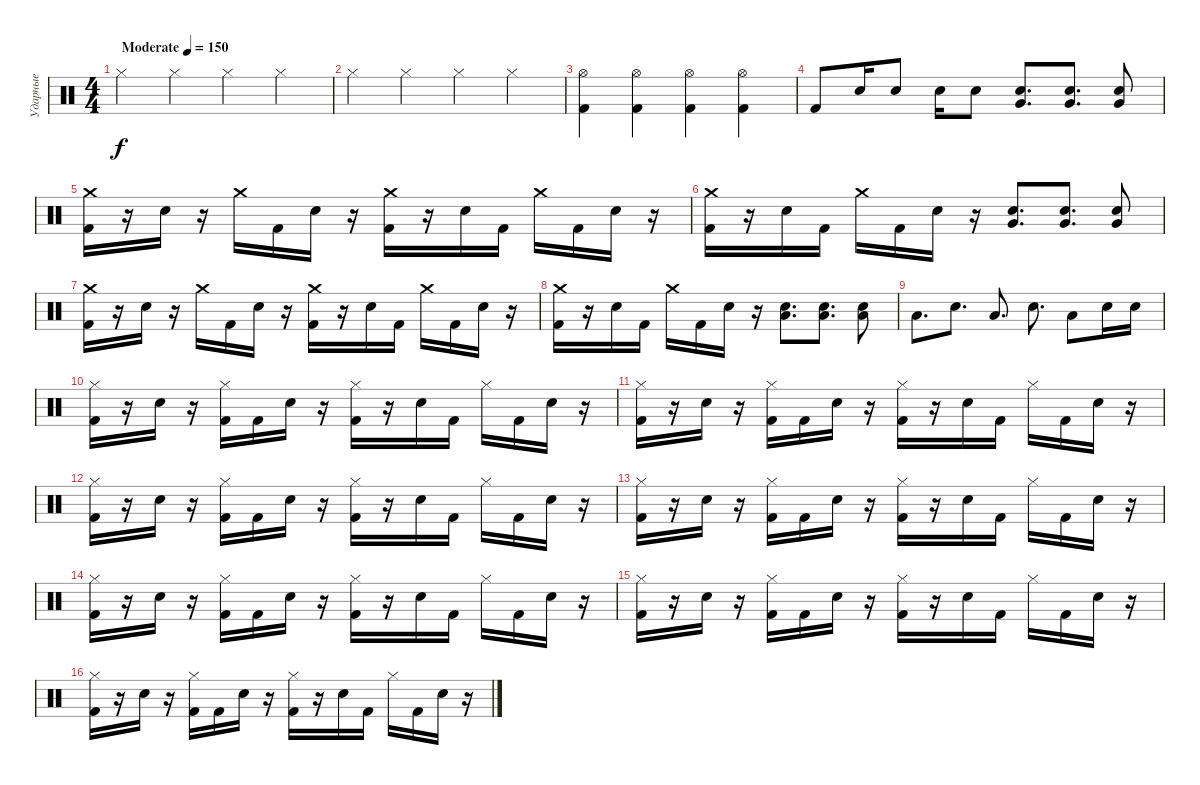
\track ("Ударные" "Ударные") {instrument percussion}
\staff {score}
\articulation defaults
\ts (4 4)
\tempo (150 "Moderate")
\clef neutral
\ks c "Hi-Hat (closed)".4{dy f} "Hi-Hat (closed)".4 "Hi-Hat (closed)".4 "Hi-Hat (closed)".4
|
"Hi-Hat (closed)".4 "Hi-Hat (closed)".4 "Hi-Hat (closed)".4 "Hi-Hat (closed)".4 |
("Hi-Hat (open)" "Kick (hit) 2").4 ("Hi-Hat (open)" "Kick (hit) 2").4 ("Hi-Hat (open)" "Kick (hit) 2").4 ("Hi-Hat (open)" "Kick (hit) 2").4 |
"Kick (hit) 2".8 "Electric Snare (hit)".16 "Electric Snare (hit)".8 "Electric Snare (hit)".16 "Electric Snare (hit)".8 ("Electric Snare (hit)" "Very Low Tom (hit)").8{d} ("Electric Snare (hit)" "Very Low Tom (hit)").8{d} ("Electric Snare (hit)" "Very Low Tom (hit)").8 |
("Crash medium (hit)" "Kick (hit) 2").16 r.16 "Electric Snare (hit)".16 r.16 "Crash medium (hit)".16 "Kick (hit) 2".16 "Electric Snare (hit)".16 r.16 ("Crash medium (hit)" "Kick (hit) 2").16 r.16 "Electric Snare (hit)".16 "Kick (hit) 2".16 "Crash medium (hit)".16 "Kick (hit) 2".16 "Electric Snare (hit)".16 r.16 |
("Crash medium (hit)" "Kick (hit) 2").16 r.16 "Electric Snare (hit)".16 "Kick (hit) 2".16 "Crash medium (hit)".16 "Kick (hit) 2".16 "Electric Snare (hit)".16 r.16 ("Electric Snare (hit)" "Very Low Tom (hit)").8{d} ("Electric Snare (hit)" "Very Low Tom (hit)").8{d} ("Electric Snare (hit)" "Very Low Tom (hit)").8 |
("Crash medium (hit)" "Kick (hit) 2").16 r.16 "Electric Snare (hit)".16 r.16 "Crash medium (hit)".16 "Kick (hit) 2".16 "Electric Snare (hit)".16 r.16 ("Crash medium (hit)" "Kick (hit) 2").16 r.16 "Electric Snare (hit)".16 "Kick (hit) 2".16 "Crash medium (hit)".16 "Kick (hit) 2".16 "Electric Snare (hit)".16 r.16 |
("Crash medium (hit)" "Kick (hit) 2").16 r.16 "Electric Snare (hit)".16 "Kick (hit) 2".16 "Crash medium (hit)".16 "Kick (hit) 2".16 "Electric Snare (hit)".16 r.16 ("Electric Snare (hit)" "Low Floor Tom (hit)").8{d} ("Electric Snare (hit)" "Low Floor Tom (hit)").8{d} ("Electric Snare (hit)" "Low Floor Tom (hit)").8 |
"Low Tom (hit)".8{d} "Electric Snare (hit)".8{d} "Low Tom (hit)".8{d} "Electric Snare (hit)".8{d} "Low Tom (hit)".8 "Electric Snare (hit)".16 "Electric Snare (hit)".16 |
("Hi-Hat (closed)" "Kick (hit) 2").16 r.16 "Electric Snare (hit)".16 r.16 ("Hi-Hat (closed)" "Kick (hit) 2").16 "Kick (hit) 2".16 "Electric Snare (hit)".16 r.16 ("Hi-Hat (closed)" "Kick (hit) 2").16 r.16 "Electric Snare (hit)".16 "Kick (hit) 2".16 "Hi-Hat (closed)".16 "Kick (hit) 2".16 "Electric Snare (hit)".16 r.16 |
("Hi-Hat (closed)" "Kick (hit) 2").16 r.16 "Electric Snare (hit)".16 r.16 ("Hi-Hat (closed)" "Kick (hit) 2").16 "Kick (hit) 2".16 "Electric Snare (hit)".16 r.16 ("Hi-Hat (closed)" "Kick (hit) 2").16 r.16 "Electric Snare (hit)".16 "Kick (hit) 2".16 "Hi-Hat (closed)".16 "Kick (hit) 2".16 "Electric Snare (hit)".16 r.16 |
("Hi-Hat (closed)" "Kick (hit) 2").16 r.16 "Electric Snare (hit)".16 r.16 ("Hi-Hat (closed)" "Kick (hit) 2").16 "Kick (hit) 2".16 "Electric Snare (hit)".16 r.16 ("Hi-Hat (closed)" "Kick (hit) 2").16 r.16 "Electric Snare (hit)".16 "Kick (hit) 2".16 "Hi-Hat (closed)".16 "Kick (hit) 2".16 "Electric Snare (hit)".16 r.16 |
("Hi-Hat (closed)" "Kick (hit) 2").16 r.16 "Electric Snare (hit)".16 r.16 ("Hi-Hat (closed)" "Kick (hit) 2").16 "Kick (hit) 2".16 "Electric Snare (hit)".16 r.16 ("Hi-Hat (closed)" "Kick (hit) 2").16 r.16 "Electric Snare (hit)".16 "Kick (hit) 2".16 "Hi-Hat (closed)".16 "Kick (hit) 2".16 "Electric Snare (hit)".16 r.16 |
("Hi-Hat (closed)" "Kick (hit) 2").16 r.16 "Electric Snare (hit)".16 r.16 ("Hi-Hat (closed)" "Kick (hit) 2").16 "Kick (hit) 2".16 "Electric Snare (hit)".16 r.16 ("Hi-Hat (closed)" "Kick (hit) 2").16 r.16 "Electric Snare (hit)".16 "Kick (hit) 2".16 "Hi-Hat (closed)".16 "Kick (hit) 2".16 "Electric Snare (hit)".16 r.16 |
("Hi-Hat (closed)" "Kick (hit) 2").16 r.16 "Electric Snare (hit)".16 r.16 ("Hi-Hat (closed)" "Kick (hit) 2").16 "Kick (hit) 2".16 "Electric Snare (hit)".16 r.16 ("Hi-Hat (closed)" "Kick (hit) 2").16 r.16 "Electric Snare (hit)".16 "Kick (hit) 2".16 "Hi-Hat (closed)".16 "Kick (hit) 2".16 "Electric Snare (hit)".16 r.16 |
("Hi-Hat (closed)" "Kick (hit) 2").16 r.16 "Electric Snare (hit)".16 r.16 ("Hi-Hat (closed)" "Kick (hit) 2").16 "Kick (hit) 2".16 "Electric Snare (hit)".16 r.16 ("Hi-Hat (closed)" "Kick (hit) 2").16 r.16 "Electric Snare (hit)".16 "Kick (hit) 2".16 "Hi-Hat (closed)".16 "Kick (hit) 2".16 "Electric Snare (hit)".16 r.16
